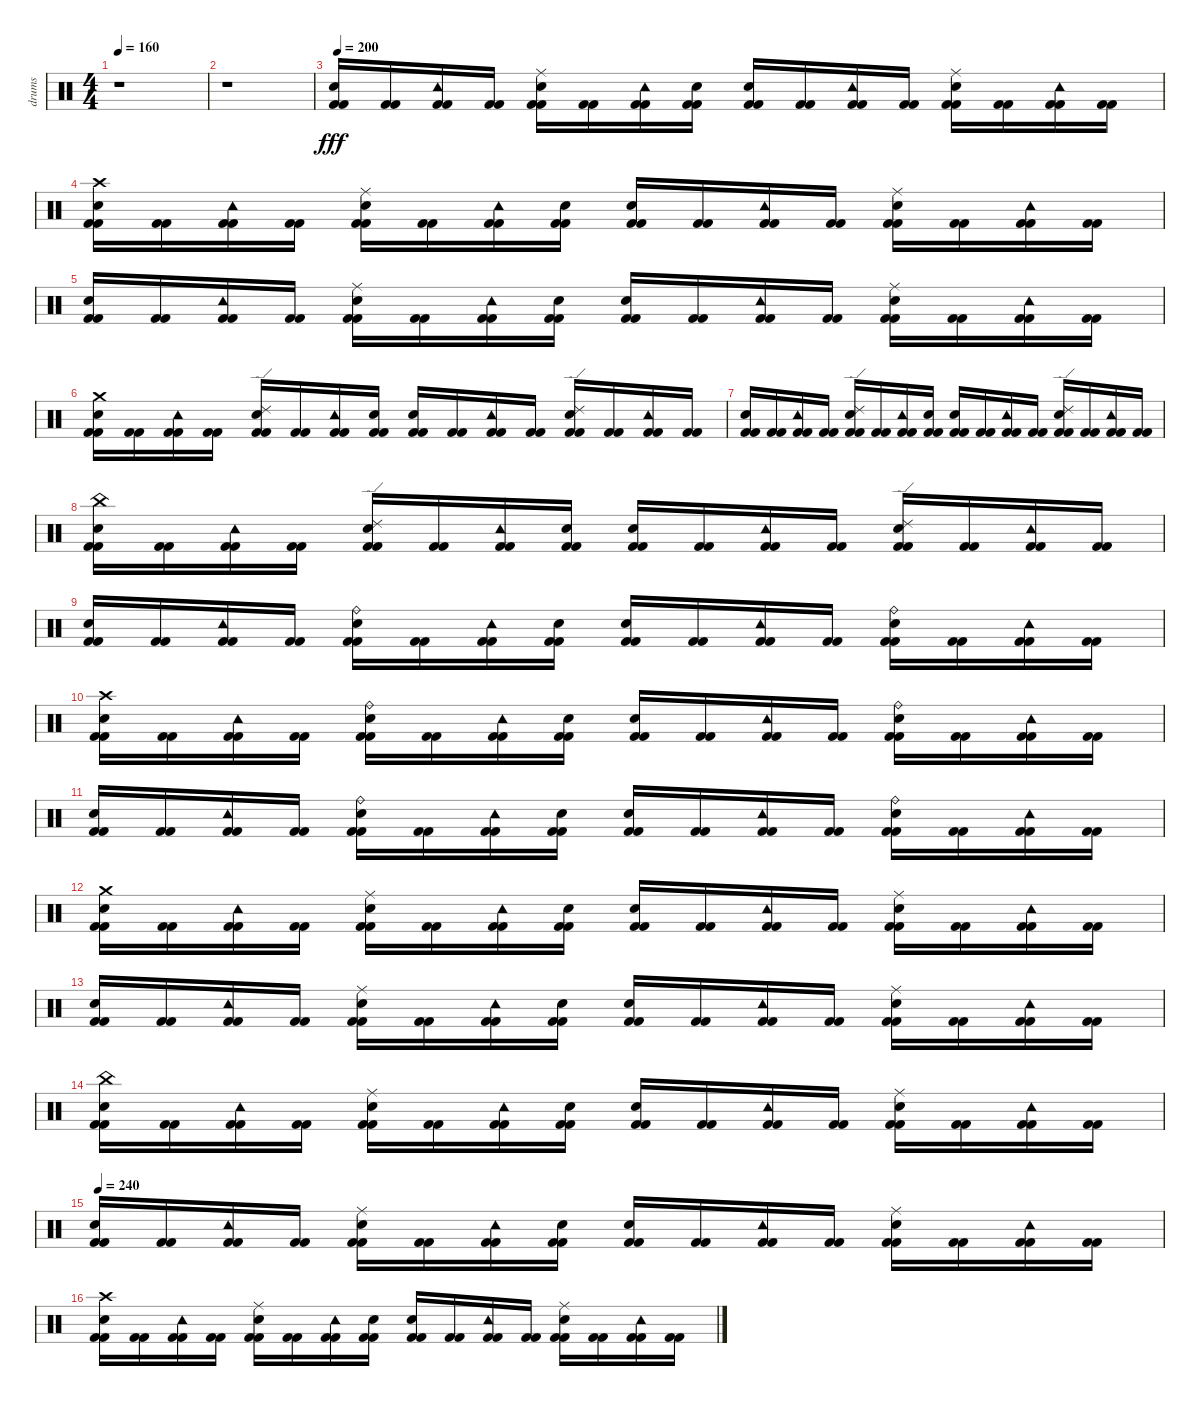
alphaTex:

\track ("drums" "drums") {instrument percussion}
\staff {score}
\articulation defaults
\ts (4 4)
\tempo 160
\clef neutral
\ks c
r.1{dy fff} |
r.1 |
\tempo 200
("Electric Snare (hit)" "Kick (hit) 2" "Kick (hit) 2").16 ("Kick (hit) 2" "Kick (hit) 2").16 ("Tambourine (hit)" "Kick (hit) 2" "Kick (hit) 2").16 ("Kick (hit) 2" "Kick (hit) 2").16 ("Ride (middle)" "Electric Snare (hit)" "Kick (hit) 2" "Kick (hit) 2").16 ("Kick (hit) 2" "Kick (hit) 2").16 ("Tambourine (hit)" "Kick (hit) 2" "Kick (hit) 2").16 ("Snare (hit) 2" "Kick (hit) 2" "Kick (hit) 2").16 ("Electric Snare (hit)" "Kick (hit) 2" "Kick (hit) 2").16 ("Kick (hit) 2" "Kick (hit) 2").16 ("Tambourine (hit)" "Kick (hit) 2" "Kick (hit) 2").16 ("Kick (hit) 2" "Kick (hit) 2").16 ("Ride (middle)" "Electric Snare (hit)" "Kick (hit) 2" "Kick (hit) 2").16 ("Kick (hit) 2" "Kick (hit) 2").16 ("Tambourine (hit)" "Kick (hit) 2" "Kick (hit) 2").16 ("Kick (hit) 2" "Kick (hit) 2").16 |
("Crash high (hit)" "Electric Snare (hit)" "Kick (hit) 2" "Kick (hit) 2").16 ("Kick (hit) 2" "Kick (hit) 2").16 ("Tambourine (hit)" "Kick (hit) 2" "Kick (hit) 2").16 ("Kick (hit) 2" "Kick (hit) 2").16 ("Ride (middle)" "Electric Snare (hit)" "Kick (hit) 2" "Kick (hit) 2").16 ("Kick (hit) 2" "Kick (hit) 2").16 ("Tambourine (hit)" "Kick (hit) 2" "Kick (hit) 2").16 ("Snare (hit) 2" "Kick (hit) 2" "Kick (hit) 2").16 ("Electric Snare (hit)" "Kick (hit) 2" "Kick (hit) 2").16 ("Kick (hit) 2" "Kick (hit) 2").16 ("Tambourine (hit)" "Kick (hit) 2" "Kick (hit) 2").16 ("Kick (hit) 2" "Kick (hit) 2").16 ("Ride (middle)" "Electric Snare (hit)" "Kick (hit) 2" "Kick (hit) 2").16 ("Kick (hit) 2" "Kick (hit) 2").16 ("Tambourine (hit)" "Kick (hit) 2" "Kick (hit) 2").16 ("Kick (hit) 2" "Kick (hit) 2").16 |
("Electric Snare (hit)" "Kick (hit) 2" "Kick (hit) 2").16 ("Kick (hit) 2" "Kick (hit) 2").16 ("Tambourine (hit)" "Kick (hit) 2" "Kick (hit) 2").16 ("Kick (hit) 2" "Kick (hit) 2").16 ("Ride (middle)" "Electric Snare (hit)" "Kick (hit) 2" "Kick (hit) 2").16 ("Kick (hit) 2" "Kick (hit) 2").16 ("Tambourine (hit)" "Kick (hit) 2" "Kick (hit) 2").16 ("Snare (hit) 2" "Kick (hit) 2" "Kick (hit) 2").16 ("Electric Snare (hit)" "Kick (hit) 2" "Kick (hit) 2").16 ("Kick (hit) 2" "Kick (hit) 2").16 ("Tambourine (hit)" "Kick (hit) 2" "Kick (hit) 2").16 ("Kick (hit) 2" "Kick (hit) 2").16 ("Ride (middle)" "Electric Snare (hit)" "Kick (hit) 2" "Kick (hit) 2").16 ("Kick (hit) 2" "Kick (hit) 2").16 ("Tambourine (hit)" "Kick (hit) 2" "Kick (hit) 2").16 ("Kick (hit) 2" "Kick (hit) 2").16 |
("Crash medium (hit)" "Electric Snare (hit)" "Kick (hit) 2" "Kick (hit) 2").16 ("Kick (hit) 2" "Kick (hit) 2").16 ("Tambourine (hit)" "Kick (hit) 2" "Kick (hit) 2").16 ("Kick (hit) 2" "Kick (hit) 2").16 ("Ride (edge) 2" "Electric Snare (hit)" "Kick (hit) 2" "Kick (hit) 2").16 ("Kick (hit) 2" "Kick (hit) 2").16 ("Tambourine (hit)" "Kick (hit) 2" "Kick (hit) 2").16 ("Snare (hit) 2" "Kick (hit) 2" "Kick (hit) 2").16 ("Electric Snare (hit)" "Kick (hit) 2" "Kick (hit) 2").16 ("Kick (hit) 2" "Kick (hit) 2").16 ("Tambourine (hit)" "Kick (hit) 2" "Kick (hit) 2").16 ("Kick (hit) 2" "Kick (hit) 2").16 ("Ride (edge) 2" "Electric Snare (hit)" "Kick (hit) 2" "Kick (hit) 2").16 ("Kick (hit) 2" "Kick (hit) 2").16 ("Tambourine (hit)" "Kick (hit) 2" "Kick (hit) 2").16 ("Kick (hit) 2" "Kick (hit) 2").16 |
("Electric Snare (hit)" "Kick (hit) 2" "Kick (hit) 2").16 ("Kick (hit) 2" "Kick (hit) 2").16 ("Tambourine (hit)" "Kick (hit) 2" "Kick (hit) 2").16 ("Kick (hit) 2" "Kick (hit) 2").16 ("Ride (edge) 2" "Electric Snare (hit)" "Kick (hit) 2" "Kick (hit) 2").16 ("Kick (hit) 2" "Kick (hit) 2").16 ("Tambourine (hit)" "Kick (hit) 2" "Kick (hit) 2").16 ("Snare (hit) 2" "Kick (hit) 2" "Kick (hit) 2").16 ("Electric Snare (hit)" "Kick (hit) 2" "Kick (hit) 2").16 ("Kick (hit) 2" "Kick (hit) 2").16 ("Tambourine (hit)" "Kick (hit) 2" "Kick (hit) 2").16 ("Kick (hit) 2" "Kick (hit) 2").16 ("Ride (edge) 2" "Electric Snare (hit)" "Kick (hit) 2" "Kick (hit) 2").16 ("Kick (hit) 2" "Kick (hit) 2").16 ("Tambourine (hit)" "Kick (hit) 2" "Kick (hit) 2").16 ("Kick (hit) 2" "Kick (hit) 2").16 |
("China (hit)" "Electric Snare (hit)" "Kick (hit) 2" "Kick (hit) 2").16 ("Kick (hit) 2" "Kick (hit) 2").16 ("Tambourine (hit)" "Kick (hit) 2" "Kick (hit) 2").16 ("Kick (hit) 2" "Kick (hit) 2").16 ("Ride (edge) 2" "Electric Snare (hit)" "Kick (hit) 2" "Kick (hit) 2").16 ("Kick (hit) 2" "Kick (hit) 2").16 ("Tambourine (hit)" "Kick (hit) 2" "Kick (hit) 2").16 ("Snare (hit) 2" "Kick (hit) 2" "Kick (hit) 2").16 ("Electric Snare (hit)" "Kick (hit) 2" "Kick (hit) 2").16 ("Kick (hit) 2" "Kick (hit) 2").16 ("Tambourine (hit)" "Kick (hit) 2" "Kick (hit) 2").16 ("Kick (hit) 2" "Kick (hit) 2").16 ("Ride (edge) 2" "Electric Snare (hit)" "Kick (hit) 2" "Kick (hit) 2").16 ("Kick (hit) 2" "Kick (hit) 2").16 ("Tambourine (hit)" "Kick (hit) 2" "Kick (hit) 2").16 ("Kick (hit) 2" "Kick (hit) 2").16 |
("Electric Snare (hit)" "Kick (hit) 2" "Kick (hit) 2").16 ("Kick (hit) 2" "Kick (hit) 2").16 ("Tambourine (hit)" "Kick (hit) 2" "Kick (hit) 2").16 ("Kick (hit) 2" "Kick (hit) 2").16 ("Ride (bell)" "Electric Snare (hit)" "Kick (hit) 2" "Kick (hit) 2").16 ("Kick (hit) 2" "Kick (hit) 2").16 ("Tambourine (hit)" "Kick (hit) 2" "Kick (hit) 2").16 ("Snare (hit) 2" "Kick (hit) 2" "Kick (hit) 2").16 ("Electric Snare (hit)" "Kick (hit) 2" "Kick (hit) 2").16 ("Kick (hit) 2" "Kick (hit) 2").16 ("Tambourine (hit)" "Kick (hit) 2" "Kick (hit) 2").16 ("Kick (hit) 2" "Kick (hit) 2").16 ("Ride (bell)" "Electric Snare (hit)" "Kick (hit) 2" "Kick (hit) 2").16 ("Kick (hit) 2" "Kick (hit) 2").16 ("Tambourine (hit)" "Kick (hit) 2" "Kick (hit) 2").16 ("Kick (hit) 2" "Kick (hit) 2").16 |
("Crash high (hit)" "Electric Snare (hit)" "Kick (hit) 2" "Kick (hit) 2").16 ("Kick (hit) 2" "Kick (hit) 2").16 ("Tambourine (hit)" "Kick (hit) 2" "Kick (hit) 2").16 ("Kick (hit) 2" "Kick (hit) 2").16 ("Ride (bell)" "Electric Snare (hit)" "Kick (hit) 2" "Kick (hit) 2").16 ("Kick (hit) 2" "Kick (hit) 2").16 ("Tambourine (hit)" "Kick (hit) 2" "Kick (hit) 2").16 ("Snare (hit) 2" "Kick (hit) 2" "Kick (hit) 2").16 ("Electric Snare (hit)" "Kick (hit) 2" "Kick (hit) 2").16 ("Kick (hit) 2" "Kick (hit) 2").16 ("Tambourine (hit)" "Kick (hit) 2" "Kick (hit) 2").16 ("Kick (hit) 2" "Kick (hit) 2").16 ("Ride (bell)" "Electric Snare (hit)" "Kick (hit) 2" "Kick (hit) 2").16 ("Kick (hit) 2" "Kick (hit) 2").16 ("Tambourine (hit)" "Kick (hit) 2" "Kick (hit) 2").16 ("Kick (hit) 2" "Kick (hit) 2").16 |
("Electric Snare (hit)" "Kick (hit) 2" "Kick (hit) 2").16 ("Kick (hit) 2" "Kick (hit) 2").16 ("Tambourine (hit)" "Kick (hit) 2" "Kick (hit) 2").16 ("Kick (hit) 2" "Kick (hit) 2").16 ("Ride (bell)" "Electric Snare (hit)" "Kick (hit) 2" "Kick (hit) 2").16 ("Kick (hit) 2" "Kick (hit) 2").16 ("Tambourine (hit)" "Kick (hit) 2" "Kick (hit) 2").16 ("Snare (hit) 2" "Kick (hit) 2" "Kick (hit) 2").16 ("Electric Snare (hit)" "Kick (hit) 2" "Kick (hit) 2").16 ("Kick (hit) 2" "Kick (hit) 2").16 ("Tambourine (hit)" "Kick (hit) 2" "Kick (hit) 2").16 ("Kick (hit) 2" "Kick (hit) 2").16 ("Ride (bell)" "Electric Snare (hit)" "Kick (hit) 2" "Kick (hit) 2").16 ("Kick (hit) 2" "Kick (hit) 2").16 ("Tambourine (hit)" "Kick (hit) 2" "Kick (hit) 2").16 ("Kick (hit) 2" "Kick (hit) 2").16 |
("Crash medium (hit)" "Electric Snare (hit)" "Kick (hit) 2" "Kick (hit) 2").16 ("Kick (hit) 2" "Kick (hit) 2").16 ("Tambourine (hit)" "Kick (hit) 2" "Kick (hit) 2").16 ("Kick (hit) 2" "Kick (hit) 2").16 ("Ride (middle)" "Electric Snare (hit)" "Kick (hit) 2" "Kick (hit) 2").16 ("Kick (hit) 2" "Kick (hit) 2").16 ("Tambourine (hit)" "Kick (hit) 2" "Kick (hit) 2").16 ("Snare (hit) 2" "Kick (hit) 2" "Kick (hit) 2").16 ("Electric Snare (hit)" "Kick (hit) 2" "Kick (hit) 2").16 ("Kick (hit) 2" "Kick (hit) 2").16 ("Tambourine (hit)" "Kick (hit) 2" "Kick (hit) 2").16 ("Kick (hit) 2" "Kick (hit) 2").16 ("Ride (middle)" "Electric Snare (hit)" "Kick (hit) 2" "Kick (hit) 2").16 ("Kick (hit) 2" "Kick (hit) 2").16 ("Tambourine (hit)" "Kick (hit) 2" "Kick (hit) 2").16 ("Kick (hit) 2" "Kick (hit) 2").16 |
("Electric Snare (hit)" "Kick (hit) 2" "Kick (hit) 2").16 ("Kick (hit) 2" "Kick (hit) 2").16 ("Tambourine (hit)" "Kick (hit) 2" "Kick (hit) 2").16 ("Kick (hit) 2" "Kick (hit) 2").16 ("Ride (middle)" "Electric Snare (hit)" "Kick (hit) 2" "Kick (hit) 2").16 ("Kick (hit) 2" "Kick (hit) 2").16 ("Tambourine (hit)" "Kick (hit) 2" "Kick (hit) 2").16 ("Snare (hit) 2" "Kick (hit) 2" "Kick (hit) 2").16 ("Electric Snare (hit)" "Kick (hit) 2" "Kick (hit) 2").16 ("Kick (hit) 2" "Kick (hit) 2").16 ("Tambourine (hit)" "Kick (hit) 2" "Kick (hit) 2").16 ("Kick (hit) 2" "Kick (hit) 2").16 ("Ride (middle)" "Electric Snare (hit)" "Kick (hit) 2" "Kick (hit) 2").16 ("Kick (hit) 2" "Kick (hit) 2").16 ("Tambourine (hit)" "Kick (hit) 2" "Kick (hit) 2").16 ("Kick (hit) 2" "Kick (hit) 2").16 |
("China (hit)" "Electric Snare (hit)" "Kick (hit) 2" "Kick (hit) 2").16 ("Kick (hit) 2" "Kick (hit) 2").16 ("Tambourine (hit)" "Kick (hit) 2" "Kick (hit) 2").16 ("Kick (hit) 2" "Kick (hit) 2").16 ("Ride (middle)" "Electric Snare (hit)" "Kick (hit) 2" "Kick (hit) 2").16 ("Kick (hit) 2" "Kick (hit) 2").16 ("Tambourine (hit)" "Kick (hit) 2" "Kick (hit) 2").16 ("Snare (hit) 2" "Kick (hit) 2" "Kick (hit) 2").16 ("Electric Snare (hit)" "Kick (hit) 2" "Kick (hit) 2").16 ("Kick (hit) 2" "Kick (hit) 2").16 ("Tambourine (hit)" "Kick (hit) 2" "Kick (hit) 2").16 ("Kick (hit) 2" "Kick (hit) 2").16 ("Ride (middle)" "Electric Snare (hit)" "Kick (hit) 2" "Kick (hit) 2").16 ("Kick (hit) 2" "Kick (hit) 2").16 ("Tambourine (hit)" "Kick (hit) 2" "Kick (hit) 2").16 ("Kick (hit) 2" "Kick (hit) 2").16 |
\tempo 240
("Electric Snare (hit)" "Kick (hit) 2" "Kick (hit) 2").16 ("Kick (hit) 2" "Kick (hit) 2").16 ("Tambourine (hit)" "Kick (hit) 2" "Kick (hit) 2").16 ("Kick (hit) 2" "Kick (hit) 2").16 ("Ride (middle)" "Electric Snare (hit)" "Kick (hit) 2" "Kick (hit) 2").16 ("Kick (hit) 2" "Kick (hit) 2").16 ("Tambourine (hit)" "Kick (hit) 2" "Kick (hit) 2").16 ("Snare (hit) 2" "Kick (hit) 2" "Kick (hit) 2").16 ("Electric Snare (hit)" "Kick (hit) 2" "Kick (hit) 2").16 ("Kick (hit) 2" "Kick (hit) 2").16 ("Tambourine (hit)" "Kick (hit) 2" "Kick (hit) 2").16 ("Kick (hit) 2" "Kick (hit) 2").16 ("Ride (middle)" "Electric Snare (hit)" "Kick (hit) 2" "Kick (hit) 2").16 ("Kick (hit) 2" "Kick (hit) 2").16 ("Tambourine (hit)" "Kick (hit) 2" "Kick (hit) 2").16 ("Kick (hit) 2" "Kick (hit) 2").16 |
("Crash high (hit)" "Electric Snare (hit)" "Kick (hit) 2" "Kick (hit) 2").16 ("Kick (hit) 2" "Kick (hit) 2").16 ("Tambourine (hit)" "Kick (hit) 2" "Kick (hit) 2").16 ("Kick (hit) 2" "Kick (hit) 2").16 ("Ride (middle)" "Electric Snare (hit)" "Kick (hit) 2" "Kick (hit) 2").16 ("Kick (hit) 2" "Kick (hit) 2").16 ("Tambourine (hit)" "Kick (hit) 2" "Kick (hit) 2").16 ("Snare (hit) 2" "Kick (hit) 2" "Kick (hit) 2").16 ("Electric Snare (hit)" "Kick (hit) 2" "Kick (hit) 2").16 ("Kick (hit) 2" "Kick (hit) 2").16 ("Tambourine (hit)" "Kick (hit) 2" "Kick (hit) 2").16 ("Kick (hit) 2" "Kick (hit) 2").16 ("Ride (middle)" "Electric Snare (hit)" "Kick (hit) 2" "Kick (hit) 2").16 ("Kick (hit) 2" "Kick (hit) 2").16 ("Tambourine (hit)" "Kick (hit) 2" "Kick (hit) 2").16 ("Kick (hit) 2" "Kick (hit) 2").16
